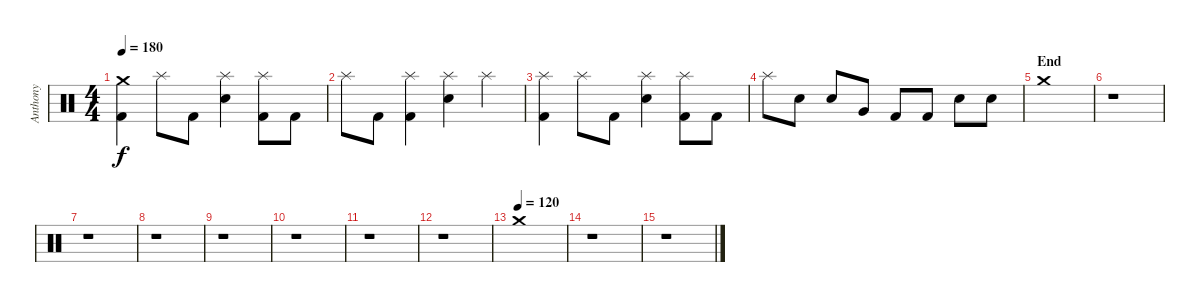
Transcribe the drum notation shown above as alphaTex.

\track ("Anthony" "Anthony") {instrument percussion}
\staff {score}
\articulation defaults
\ts (4 4)
\tempo 180
\clef neutral
\ks c
("Crash medium (hit)" "Kick (hit) 2").4{dy f} "Splash (hit)".8 "Kick (hit) 2".8 ("Splash (hit)" "Electric Snare (hit)").4 ("Splash (hit)" "Kick (hit) 2").8 "Kick (hit) 2".8 |
"Splash (hit)".8 "Kick (hit) 2".8 ("Splash (hit)" "Kick (hit) 2").4 ("Splash (hit)" "Electric Snare (hit)").4 "Splash (hit)".4 |
("Splash (hit)" "Kick (hit) 2").4 "Splash (hit)".8 "Kick (hit) 2".8 ("Splash (hit)" "Electric Snare (hit)").4 ("Splash (hit)" "Kick (hit) 2").8 "Kick (hit) 2".8 |
"Splash (hit)".8 "Electric Snare (hit)".8 "Electric Snare (hit)".8 "Very Low Tom (hit)".8 "Kick (hit) 2".8 "Kick (hit) 2".8 "Electric Snare (hit)".8 "Electric Snare (hit)".8 |
\section ("" "End")
"Crash medium (hit)".1 |
r.1 |
r.1 |
r.1 |
r.1 |
r.1 |
r.1 |
r.1 |
\tempo (120)
"Crash medium (hit)".1 |
r.1 |
r.1
